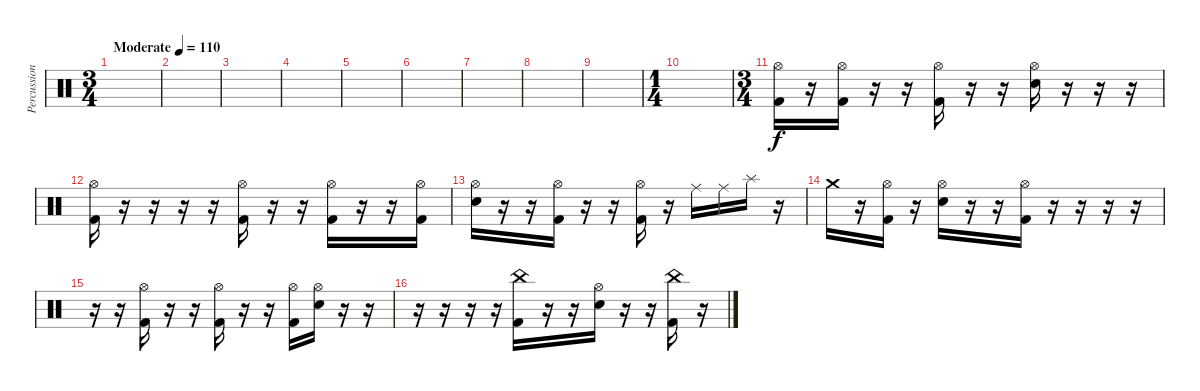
\track ("Percussion" "Percussion") {instrument percussion}
\staff {score}
\articulation defaults
\ts (3 4)
\tempo (110 "Moderate")
\clef neutral
\ks c
|
|
|
|
|
|
|
|
|
\ts (1 4)
|
\ts (3 4)
("Hi-Hat (open)" "Kick (hit) 2").16 r.16 ("Hi-Hat (open)" "Kick (hit) 2").16 r.16 r.16 ("Hi-Hat (open)" "Kick (hit) 2").16 r.16 r.16 ("Hi-Hat (open)" "Electric Snare (hit)").16 r.16 r.16 r.16 |
("Hi-Hat (open)" "Kick (hit) 2").16 r.16 r.16 r.16 r.16 ("Hi-Hat (open)" "Kick (hit) 2").16 r.16 r.16 ("Hi-Hat (open)" "Kick (hit) 2").16 r.16 r.16 ("Hi-Hat (open)" "Kick (hit) 2").16 |
("Hi-Hat (open)" "Electric Snare (hit)").16 r.16 r.16 ("Hi-Hat (open)" "Kick (hit) 2").16 r.16 r.16 ("Hi-Hat (open)" "Kick (hit) 2").16 r.16 "Ride (middle)".16 "Ride (middle)".16 "Splash (hit)".16 r.16 |
"Crash medium (hit)".16 r.16 ("Hi-Hat (open)" "Kick (hit) 2").16 r.16 ("Hi-Hat (open)" "Electric Snare (hit)").16 r.16 r.16 ("Hi-Hat (open)" "Kick (hit) 2").16 r.16 r.16 r.16 r.16 |
r.16 r.16 ("Hi-Hat (open)" "Kick (hit) 2").16 r.16 r.16 ("Hi-Hat (open)" "Kick (hit) 2").16 r.16 r.16 ("Hi-Hat (open)" "Kick (hit) 2").16 ("Hi-Hat (open)" "Electric Snare (hit)").16 r.16 r.16 |
r.16 r.16 r.16 r.16 ("China (hit)" "Kick (hit) 2").16 r.16 r.16 ("Hi-Hat (open)" "Electric Snare (hit)").16 r.16 r.16 ("China (hit)" "Kick (hit) 2").16 r.16
